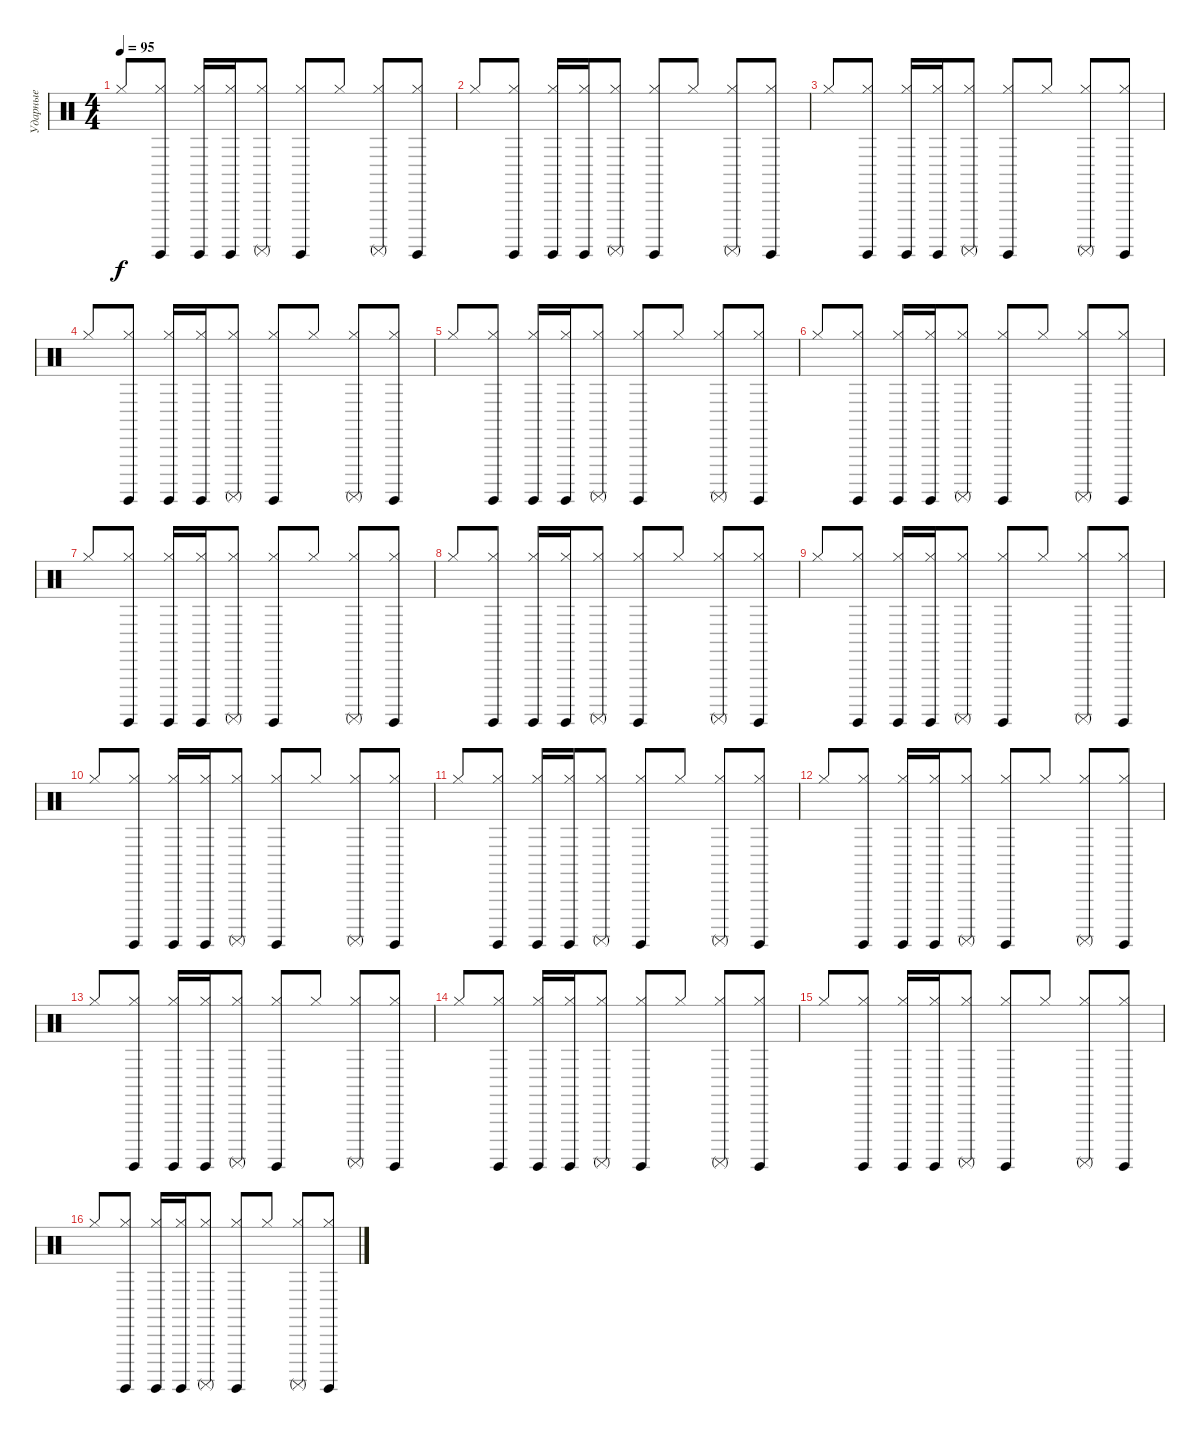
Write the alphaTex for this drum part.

\track ("Ударные" "Ударные") {instrument percussion}
\staff {score}
\articulation defaults
\ts (4 4)
\tempo 95
\clef neutral
\ks c "Hi-Hat (closed)".8{dy f}
("Hi-Hat (closed)" "Surdo (hit)").8 ("Hi-Hat (closed)" "Surdo (hit)").16 ("Hi-Hat (closed)" "Surdo (hit)").16 ("Hi-Hat (closed)" "Surdo (mute)").8 ("Hi-Hat (closed)" "Surdo (hit)").8 "Hi-Hat (closed)".8 ("Hi-Hat (closed)" "Surdo (mute)").8 ("Hi-Hat (closed)" "Surdo (hit)").8 |
"Hi-Hat (closed)".8 ("Hi-Hat (closed)" "Surdo (hit)").8 ("Hi-Hat (closed)" "Surdo (hit)").16 ("Hi-Hat (closed)" "Surdo (hit)").16 ("Hi-Hat (closed)" "Surdo (mute)").8 ("Hi-Hat (closed)" "Surdo (hit)").8 "Hi-Hat (closed)".8 ("Hi-Hat (closed)" "Surdo (mute)").8 ("Hi-Hat (closed)" "Surdo (hit)").8 |
"Hi-Hat (closed)".8 ("Hi-Hat (closed)" "Surdo (hit)").8 ("Hi-Hat (closed)" "Surdo (hit)").16 ("Hi-Hat (closed)" "Surdo (hit)").16 ("Hi-Hat (closed)" "Surdo (mute)").8 ("Hi-Hat (closed)" "Surdo (hit)").8 "Hi-Hat (closed)".8 ("Hi-Hat (closed)" "Surdo (mute)").8 ("Hi-Hat (closed)" "Surdo (hit)").8 |
"Hi-Hat (closed)".8 ("Hi-Hat (closed)" "Surdo (hit)").8 ("Hi-Hat (closed)" "Surdo (hit)").16 ("Hi-Hat (closed)" "Surdo (hit)").16 ("Hi-Hat (closed)" "Surdo (mute)").8 ("Hi-Hat (closed)" "Surdo (hit)").8 "Hi-Hat (closed)".8 ("Hi-Hat (closed)" "Surdo (mute)").8 ("Hi-Hat (closed)" "Surdo (hit)").8 |
"Hi-Hat (closed)".8 ("Hi-Hat (closed)" "Surdo (hit)").8 ("Hi-Hat (closed)" "Surdo (hit)").16 ("Hi-Hat (closed)" "Surdo (hit)").16 ("Hi-Hat (closed)" "Surdo (mute)").8 ("Hi-Hat (closed)" "Surdo (hit)").8 "Hi-Hat (closed)".8 ("Hi-Hat (closed)" "Surdo (mute)").8 ("Hi-Hat (closed)" "Surdo (hit)").8 |
"Hi-Hat (closed)".8 ("Hi-Hat (closed)" "Surdo (hit)").8 ("Hi-Hat (closed)" "Surdo (hit)").16 ("Hi-Hat (closed)" "Surdo (hit)").16 ("Hi-Hat (closed)" "Surdo (mute)").8 ("Hi-Hat (closed)" "Surdo (hit)").8 "Hi-Hat (closed)".8 ("Hi-Hat (closed)" "Surdo (mute)").8 ("Hi-Hat (closed)" "Surdo (hit)").8 |
"Hi-Hat (closed)".8 ("Hi-Hat (closed)" "Surdo (hit)").8 ("Hi-Hat (closed)" "Surdo (hit)").16 ("Hi-Hat (closed)" "Surdo (hit)").16 ("Hi-Hat (closed)" "Surdo (mute)").8 ("Hi-Hat (closed)" "Surdo (hit)").8 "Hi-Hat (closed)".8 ("Hi-Hat (closed)" "Surdo (mute)").8 ("Hi-Hat (closed)" "Surdo (hit)").8 |
"Hi-Hat (closed)".8 ("Hi-Hat (closed)" "Surdo (hit)").8 ("Hi-Hat (closed)" "Surdo (hit)").16 ("Hi-Hat (closed)" "Surdo (hit)").16 ("Hi-Hat (closed)" "Surdo (mute)").8 ("Hi-Hat (closed)" "Surdo (hit)").8 "Hi-Hat (closed)".8 ("Hi-Hat (closed)" "Surdo (mute)").8 ("Hi-Hat (closed)" "Surdo (hit)").8 |
"Hi-Hat (closed)".8 ("Hi-Hat (closed)" "Surdo (hit)").8 ("Hi-Hat (closed)" "Surdo (hit)").16 ("Hi-Hat (closed)" "Surdo (hit)").16 ("Hi-Hat (closed)" "Surdo (mute)").8 ("Hi-Hat (closed)" "Surdo (hit)").8 "Hi-Hat (closed)".8 ("Hi-Hat (closed)" "Surdo (mute)").8 ("Hi-Hat (closed)" "Surdo (hit)").8 |
"Hi-Hat (closed)".8 ("Hi-Hat (closed)" "Surdo (hit)").8 ("Hi-Hat (closed)" "Surdo (hit)").16 ("Hi-Hat (closed)" "Surdo (hit)").16 ("Hi-Hat (closed)" "Surdo (mute)").8 ("Hi-Hat (closed)" "Surdo (hit)").8 "Hi-Hat (closed)".8 ("Hi-Hat (closed)" "Surdo (mute)").8 ("Hi-Hat (closed)" "Surdo (hit)").8 |
"Hi-Hat (closed)".8 ("Hi-Hat (closed)" "Surdo (hit)").8 ("Hi-Hat (closed)" "Surdo (hit)").16 ("Hi-Hat (closed)" "Surdo (hit)").16 ("Hi-Hat (closed)" "Surdo (mute)").8 ("Hi-Hat (closed)" "Surdo (hit)").8 "Hi-Hat (closed)".8 ("Hi-Hat (closed)" "Surdo (mute)").8 ("Hi-Hat (closed)" "Surdo (hit)").8 |
"Hi-Hat (closed)".8 ("Hi-Hat (closed)" "Surdo (hit)").8 ("Hi-Hat (closed)" "Surdo (hit)").16 ("Hi-Hat (closed)" "Surdo (hit)").16 ("Hi-Hat (closed)" "Surdo (mute)").8 ("Hi-Hat (closed)" "Surdo (hit)").8 "Hi-Hat (closed)".8 ("Hi-Hat (closed)" "Surdo (mute)").8 ("Hi-Hat (closed)" "Surdo (hit)").8 |
"Hi-Hat (closed)".8 ("Hi-Hat (closed)" "Surdo (hit)").8 ("Hi-Hat (closed)" "Surdo (hit)").16 ("Hi-Hat (closed)" "Surdo (hit)").16 ("Hi-Hat (closed)" "Surdo (mute)").8 ("Hi-Hat (closed)" "Surdo (hit)").8 "Hi-Hat (closed)".8 ("Hi-Hat (closed)" "Surdo (mute)").8 ("Hi-Hat (closed)" "Surdo (hit)").8 |
"Hi-Hat (closed)".8 ("Hi-Hat (closed)" "Surdo (hit)").8 ("Hi-Hat (closed)" "Surdo (hit)").16 ("Hi-Hat (closed)" "Surdo (hit)").16 ("Hi-Hat (closed)" "Surdo (mute)").8 ("Hi-Hat (closed)" "Surdo (hit)").8 "Hi-Hat (closed)".8 ("Hi-Hat (closed)" "Surdo (mute)").8 ("Hi-Hat (closed)" "Surdo (hit)").8 |
"Hi-Hat (closed)".8 ("Hi-Hat (closed)" "Surdo (hit)").8 ("Hi-Hat (closed)" "Surdo (hit)").16 ("Hi-Hat (closed)" "Surdo (hit)").16 ("Hi-Hat (closed)" "Surdo (mute)").8 ("Hi-Hat (closed)" "Surdo (hit)").8 "Hi-Hat (closed)".8 ("Hi-Hat (closed)" "Surdo (mute)").8 ("Hi-Hat (closed)" "Surdo (hit)").8 |
"Hi-Hat (closed)".8 ("Hi-Hat (closed)" "Surdo (hit)").8 ("Hi-Hat (closed)" "Surdo (hit)").16 ("Hi-Hat (closed)" "Surdo (hit)").16 ("Hi-Hat (closed)" "Surdo (mute)").8 ("Hi-Hat (closed)" "Surdo (hit)").8 "Hi-Hat (closed)".8 ("Hi-Hat (closed)" "Surdo (mute)").8 ("Hi-Hat (closed)" "Surdo (hit)").8
